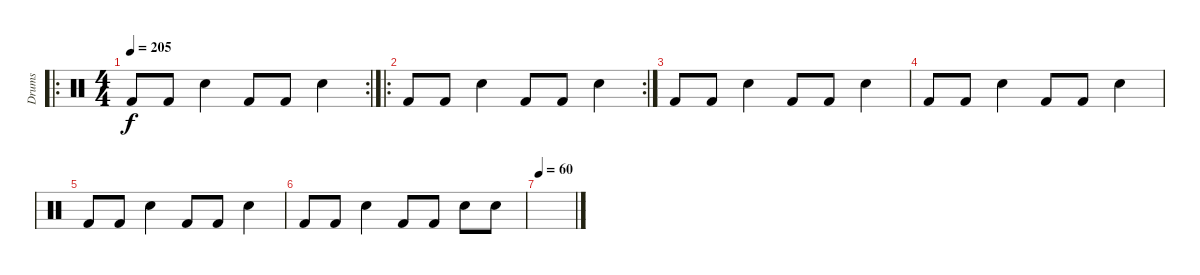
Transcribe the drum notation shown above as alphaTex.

\track ("Drums " "Drums ") {instrument percussion}
\staff {score}
\articulation defaults
\ro
\rc 2
\ts (4 4)
\tempo 205
\clef neutral
\ks c "Kick (hit) 2".8{dy f} "Kick (hit) 2".8 "Electric Snare (hit)".4 "Kick (hit) 2".8 "Kick (hit) 2".8 "Electric Snare (hit)".4
|
\ro
\rc 2 "Kick (hit) 2".8 "Kick (hit) 2".8 "Electric Snare (hit)".4 "Kick (hit) 2".8 "Kick (hit) 2".8 "Electric Snare (hit)".4
|
"Kick (hit) 2".8 "Kick (hit) 2".8 "Electric Snare (hit)".4 "Kick (hit) 2".8 "Kick (hit) 2".8 "Electric Snare (hit)".4 |
"Kick (hit) 2".8 "Kick (hit) 2".8 "Electric Snare (hit)".4 "Kick (hit) 2".8 "Kick (hit) 2".8 "Electric Snare (hit)".4 |
"Kick (hit) 2".8 "Kick (hit) 2".8 "Electric Snare (hit)".4 "Kick (hit) 2".8 "Kick (hit) 2".8 "Electric Snare (hit)".4 |
"Kick (hit) 2".8 "Kick (hit) 2".8 "Electric Snare (hit)".4 "Kick (hit) 2".8 "Kick (hit) 2".8 "Electric Snare (hit)".8 "Electric Snare (hit)".8 |
\tempo 60
